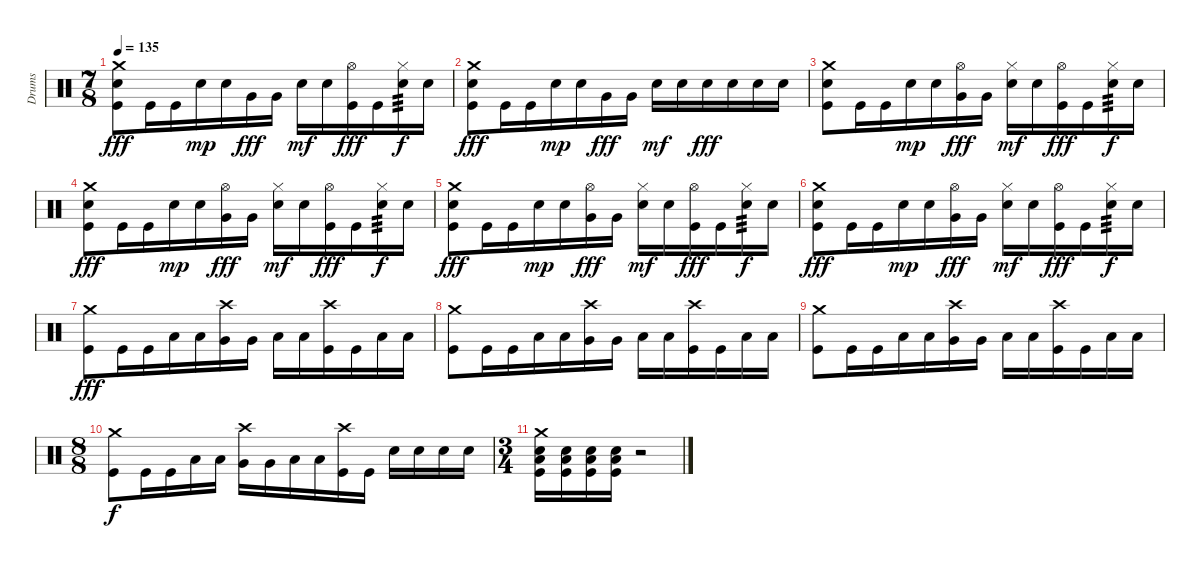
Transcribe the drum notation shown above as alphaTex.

\track ("Drums" "Drums") {instrument percussion}
\staff {score}
\articulation defaults
\ts (7 8)
\tempo 135
\clef neutral
\ks c
("Crash medium (hit)" "Electric Snare (hit)" "Kick (hit)").8{dy fff} "Kick (hit)".16 "Kick (hit)".16 "Electric Snare (hit)".16{dy mp} "Electric Snare (hit)".16 "Very Low Tom (hit)".16{dy fff} "Very Low Tom (hit)".16 "Electric Snare (hit)".16{dy mf} "Electric Snare (hit)".16 ("Hi-Hat (open)" "Kick (hit)").16{dy fff} "Kick (hit)".16 ("Hi-Hat (closed)" "Electric Snare (hit)").16{tp 3 dy f} "Electric Snare (hit)".16 |
("Crash medium (hit)" "Electric Snare (hit)" "Kick (hit)").8{dy fff} "Kick (hit)".16 "Kick (hit)".16 "Electric Snare (hit)".16{dy mp} "Electric Snare (hit)".16 "Very Low Tom (hit)".16{dy fff} "Very Low Tom (hit)".16 "Electric Snare (hit)".16{dy mf} "Electric Snare (hit)".16 "Electric Snare (hit)".16{dy fff} "Electric Snare (hit)".16 "Electric Snare (hit)".16 "Electric Snare (hit)".16 |
("Crash medium (hit)" "Electric Snare (hit)" "Kick (hit)").8 "Kick (hit)".16 "Kick (hit)".16 "Electric Snare (hit)".16{dy mp} "Electric Snare (hit)".16 ("Hi-Hat (open)" "Very Low Tom (hit)").16{dy fff} "Very Low Tom (hit)".16 ("Hi-Hat (closed)" "Electric Snare (hit)").16{dy mf} "Electric Snare (hit)".16 ("Hi-Hat (open)" "Kick (hit)").16{dy fff} "Kick (hit)".16 ("Hi-Hat (closed)" "Electric Snare (hit)").16{tp 3 dy f} "Electric Snare (hit)".16 |
("Crash medium (hit)" "Electric Snare (hit)" "Kick (hit)").8{dy fff} "Kick (hit)".16 "Kick (hit)".16 "Electric Snare (hit)".16{dy mp} "Electric Snare (hit)".16 ("Hi-Hat (open)" "Very Low Tom (hit)").16{dy fff} "Very Low Tom (hit)".16 ("Hi-Hat (closed)" "Electric Snare (hit)").16{dy mf} "Electric Snare (hit)".16 ("Hi-Hat (open)" "Kick (hit)").16{dy fff} "Kick (hit)".16 ("Hi-Hat (closed)" "Electric Snare (hit)").16{tp 3 dy f} "Electric Snare (hit)".16 |
("Crash medium (hit)" "Electric Snare (hit)" "Kick (hit)").8{dy fff} "Kick (hit)".16 "Kick (hit)".16 "Electric Snare (hit)".16{dy mp} "Electric Snare (hit)".16 ("Hi-Hat (open)" "Very Low Tom (hit)").16{dy fff} "Very Low Tom (hit)".16 ("Hi-Hat (closed)" "Electric Snare (hit)").16{dy mf} "Electric Snare (hit)".16 ("Hi-Hat (open)" "Kick (hit)").16{dy fff} "Kick (hit)".16 ("Hi-Hat (closed)" "Electric Snare (hit)").16{tp 3 dy f} "Electric Snare (hit)".16 |
("Crash medium (hit)" "Electric Snare (hit)" "Kick (hit)").8{dy fff} "Kick (hit)".16 "Kick (hit)".16 "Electric Snare (hit)".16{dy mp} "Electric Snare (hit)".16 ("Hi-Hat (open)" "Very Low Tom (hit)").16{dy fff} "Very Low Tom (hit)".16 ("Hi-Hat (closed)" "Electric Snare (hit)").16{dy mf} "Electric Snare (hit)".16 ("Hi-Hat (open)" "Kick (hit)").16{dy fff} "Kick (hit)".16 ("Hi-Hat (closed)" "Electric Snare (hit)").16{tp 3 dy f} "Electric Snare (hit)".16 |
("Crash medium (hit)" "Kick (hit)").8{dy fff} "Kick (hit)".16 "Kick (hit)".16 "Low Tom (hit)".16 "Low Tom (hit)".16 ("Crash high (hit)" "Very Low Tom (hit)").16 "Very Low Tom (hit)".16 "Low Floor Tom (hit)".16 "Low Floor Tom (hit)".16 ("Crash high (hit)" "Kick (hit)").16 "Kick (hit)".16 "Low Tom (hit)".16 "Low Tom (hit)".16 |
("Crash medium (hit)" "Kick (hit)").8 "Kick (hit)".16 "Kick (hit)".16 "Low Tom (hit)".16 "Low Tom (hit)".16 ("Crash high (hit)" "Very Low Tom (hit)").16 "Very Low Tom (hit)".16 "Low Floor Tom (hit)".16 "Low Floor Tom (hit)".16 ("Crash high (hit)" "Kick (hit)").16 "Kick (hit)".16 "Low Tom (hit)".16 "Low Tom (hit)".16 |
("Crash medium (hit)" "Kick (hit)").8 "Kick (hit)".16 "Kick (hit)".16 "Low Tom (hit)".16 "Low Tom (hit)".16 ("Crash high (hit)" "Very Low Tom (hit)").16 "Very Low Tom (hit)".16 "Low Floor Tom (hit)".16 "Low Floor Tom (hit)".16 ("Crash high (hit)" "Kick (hit)").16 "Kick (hit)".16 "Low Tom (hit)".16 "Low Tom (hit)".16 |
\ts (8 8)
("Crash medium (hit)" "Kick (hit)").8{dy f} "Kick (hit)".16 "Kick (hit)".16 "Low Tom (hit)".16 "Low Tom (hit)".16 ("Crash high (hit)" "Very Low Tom (hit)").16 "Very Low Tom (hit)".16 "Low Floor Tom (hit)".16 "Low Floor Tom (hit)".16 ("Crash high (hit)" "Kick (hit)").16 "Kick (hit)".16 "Electric Snare (hit)".16 "Electric Snare (hit)".16 "Electric Snare (hit)".16 "Electric Snare (hit)".16 |
\ts (3 4)
("Crash medium (hit)" "Electric Snare (hit)" "Low Tom (hit)" "Kick (hit)").16 ("Electric Snare (hit)" "Low Tom (hit)" "Kick (hit)").16 ("Electric Snare (hit)" "Low Tom (hit)" "Kick (hit)").16 ("Electric Snare (hit)" "Low Tom (hit)" "Kick (hit)").16 r.2
